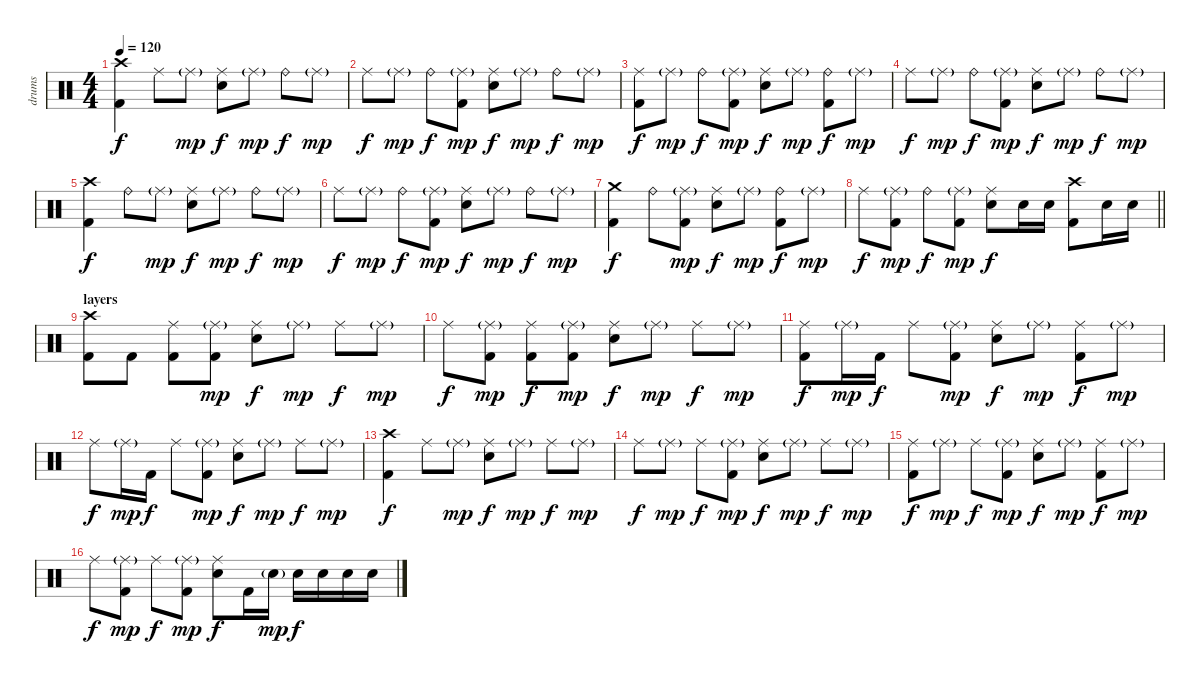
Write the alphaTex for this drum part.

\track ("drums" "drums") {instrument percussion}
\staff {score}
\articulation defaults
\ts (4 4)
\tempo 120
\clef neutral
\ks c
("Crash high (hit)" "Kick (hit) 2").4{dy f} "Ride (middle)".8 "Ride (middle)"{g}.8{dy mp} ("Ride (middle)" "Electric Snare (hit)").8{dy f} "Ride (middle)"{g}.8{dy mp} "Ride (bell)".8{dy f} "Ride (middle)"{g}.8{dy mp} |
"Ride (middle)".8{dy f} "Ride (middle)"{g}.8{dy mp} "Ride (bell)".8{dy f} ("Ride (middle)"{g} "Kick (hit) 2").8{dy mp} ("Ride (middle)" "Electric Snare (hit)").8{dy f} "Ride (middle)"{g}.8{dy mp} "Ride (bell)".8{dy f} "Ride (middle)"{g}.8{dy mp} |
("Ride (middle)" "Kick (hit) 2").8{dy f} "Ride (middle)"{g}.8{dy mp} "Ride (bell)".8{dy f} ("Ride (middle)"{g} "Kick (hit) 2").8{dy mp} ("Ride (middle)" "Electric Snare (hit)").8{dy f} "Ride (middle)"{g}.8{dy mp} ("Ride (bell)" "Kick (hit) 2").8{dy f} "Ride (middle)"{g}.8{dy mp} |
"Ride (middle)".8{dy f} "Ride (middle)"{g}.8{dy mp} "Ride (bell)".8{dy f} ("Ride (middle)"{g} "Kick (hit) 2").8{dy mp} ("Ride (middle)" "Electric Snare (hit)").8{dy f} "Ride (middle)"{g}.8{dy mp} "Ride (bell)".8{dy f} "Ride (middle)"{g}.8{dy mp} |
("Crash high (hit)" "Kick (hit) 2").4{dy f} "Ride (bell)".8 "Ride (middle)"{g}.8{dy mp} ("Ride (middle)" "Electric Snare (hit)").8{dy f} "Ride (middle)"{g}.8{dy mp} "Ride (bell)".8{dy f} "Ride (middle)"{g}.8{dy mp} |
"Ride (middle)".8{dy f} "Ride (middle)"{g}.8{dy mp} "Ride (bell)".8{dy f} ("Ride (middle)"{g} "Kick (hit) 2").8{dy mp} ("Ride (middle)" "Electric Snare (hit)").8{dy f} "Ride (middle)"{g}.8{dy mp} "Ride (bell)".8{dy f} "Ride (middle)"{g}.8{dy mp} |
("Crash medium (hit)" "Kick (hit) 2").4{dy f} "Ride (bell)".8 ("Ride (middle)"{g} "Kick (hit) 2").8{dy mp} ("Ride (middle)" "Electric Snare (hit)").8{dy f} "Ride (middle)"{g}.8{dy mp} ("Ride (bell)" "Kick (hit) 2").8{dy f} "Ride (middle)"{g}.8{dy mp} |
\barLineRight lightlight "Ride (middle)".8{dy f}
("Ride (middle)"{g} "Kick (hit) 2").8{dy mp} "Ride (bell)".8{dy f} ("Ride (middle)"{g} "Kick (hit) 2").8{dy mp} ("Ride (middle)" "Electric Snare (hit)").8{dy f} "Electric Snare (hit)".16 "Electric Snare (hit)".16 ("Crash high (hit)" "Kick (hit) 2").8 "Electric Snare (hit)".16 "Electric Snare (hit)".16 |
\section ("" "layers")
("Crash high (hit)" "Kick (hit) 2").8 "Kick (hit) 2".8 ("Ride (middle)" "Kick (hit) 2").8 ("Ride (middle)"{g} "Kick (hit) 2").8{dy mp} ("Ride (middle)" "Electric Snare (hit)").8{dy f} "Ride (middle)"{g}.8{dy mp} "Ride (middle)".8{dy f} "Ride (middle)"{g}.8{dy mp} |
"Ride (middle)".8{dy f} ("Ride (middle)"{g} "Kick (hit) 2").8{dy mp} ("Ride (middle)" "Kick (hit) 2").8{dy f} ("Ride (middle)"{g} "Kick (hit) 2").8{dy mp} ("Ride (middle)" "Electric Snare (hit)").8{dy f} "Ride (middle)"{g}.8{dy mp} "Ride (middle)".8{dy f} "Ride (middle)"{g}.8{dy mp} |
("Ride (middle)" "Kick (hit) 2").8{dy f} "Ride (middle)"{g}.16{dy mp} "Kick (hit) 2".16{dy f} "Ride (middle)".8 ("Ride (middle)"{g} "Kick (hit) 2").8{dy mp} ("Ride (middle)" "Electric Snare (hit)").8{dy f} "Ride (middle)"{g}.8{dy mp} ("Ride (middle)" "Kick (hit) 2").8{dy f} "Ride (middle)"{g}.8{dy mp} |
"Ride (middle)".8{dy f} "Ride (middle)"{g}.16{dy mp} "Kick (hit) 2".16{dy f} "Ride (middle)".8 ("Ride (middle)"{g} "Kick (hit) 2").8{dy mp} ("Ride (middle)" "Electric Snare (hit)").8{dy f} "Ride (middle)"{g}.8{dy mp} "Ride (middle)".8{dy f} "Ride (middle)"{g}.8{dy mp} |
("Crash high (hit)" "Kick (hit) 2").4{dy f} "Ride (middle)".8 "Ride (middle)"{g}.8{dy mp} ("Ride (middle)" "Electric Snare (hit)").8{dy f} "Ride (middle)"{g}.8{dy mp} "Ride (middle)".8{dy f} "Ride (middle)"{g}.8{dy mp} |
"Ride (middle)".8{dy f} "Ride (middle)"{g}.8{dy mp} "Ride (middle)".8{dy f} ("Ride (middle)"{g} "Kick (hit) 2").8{dy mp} ("Ride (middle)" "Electric Snare (hit)").8{dy f} "Ride (middle)"{g}.8{dy mp} "Ride (middle)".8{dy f} "Ride (middle)"{g}.8{dy mp} |
("Ride (middle)" "Kick (hit) 2").8{dy f} "Ride (middle)"{g}.8{dy mp} "Ride (middle)".8{dy f} ("Ride (middle)"{g} "Kick (hit) 2").8{dy mp} ("Ride (middle)" "Electric Snare (hit)").8{dy f} "Ride (middle)"{g}.8{dy mp} ("Ride (middle)" "Kick (hit) 2").8{dy f} "Ride (middle)"{g}.8{dy mp} |
"Ride (middle)".8{dy f} ("Ride (middle)"{g} "Kick (hit) 2").8{dy mp} "Ride (middle)".8{dy f} ("Ride (middle)"{g} "Kick (hit) 2").8{dy mp} ("Ride (middle)" "Electric Snare (hit)").8{dy f} "Kick (hit) 2".16 "Electric Snare (hit)"{g}.16{dy mp} "Electric Snare (hit)".16{dy f} "Electric Snare (hit)".16 "Electric Snare (hit)".16 "Electric Snare (hit)".16
